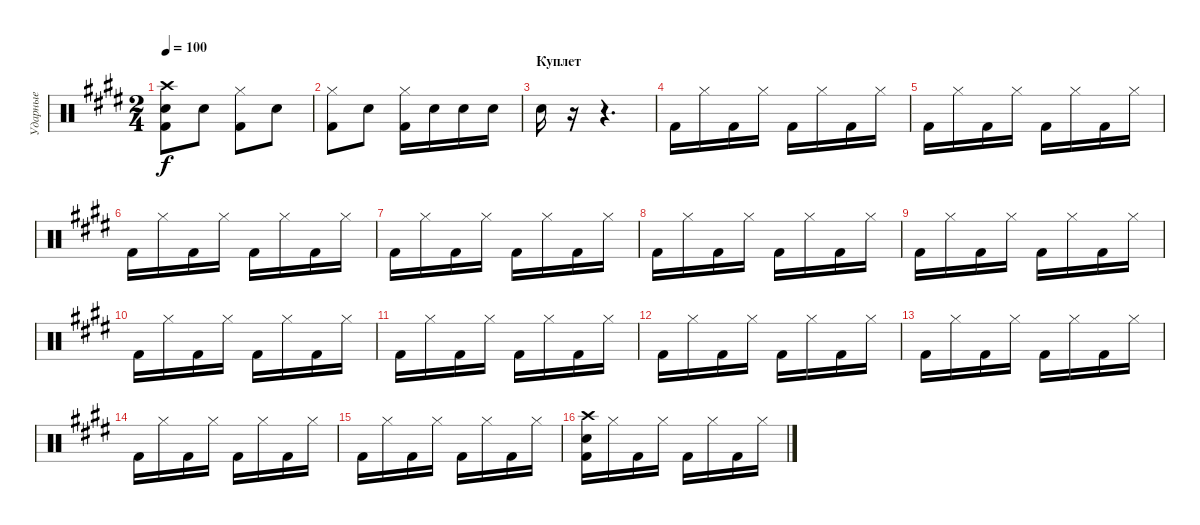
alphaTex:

\track ("Ударные" "Ударные") {instrument percussion}
\staff {score}
\articulation defaults
\ts (2 4)
\tempo 100
\clef neutral
\ks c#minor
("Crash high (hit)" "Snare (hit) 2" "Kick (hit) 2").8{dy f} "Snare (hit) 2".8 ("Kick (hit) 2" "Hi-Hat (closed)").8 "Snare (hit) 2".8 |
("Kick (hit) 2" "Hi-Hat (closed)").8 "Snare (hit) 2".8 ("Hi-Hat (closed)" "Kick (hit) 2").16 "Snare (hit) 2".16 "Snare (hit) 2".16 "Snare (hit) 2".16 |
\section ("" "Куплет")
"Snare (hit) 2".16 r.16 r.4{d} |
"Kick (hit) 2".16 "Hi-Hat (closed)".16 "Kick (hit) 2".16 "Hi-Hat (closed)".16 "Kick (hit) 2".16 "Hi-Hat (closed)".16 "Kick (hit) 2".16 "Hi-Hat (closed)".16 |
"Kick (hit) 2".16 "Hi-Hat (closed)".16 "Kick (hit) 2".16 "Hi-Hat (closed)".16 "Kick (hit) 2".16 "Hi-Hat (closed)".16 "Kick (hit) 2".16 "Hi-Hat (closed)".16 |
"Kick (hit) 2".16 "Hi-Hat (closed)".16 "Kick (hit) 2".16 "Hi-Hat (closed)".16 "Kick (hit) 2".16 "Hi-Hat (closed)".16 "Kick (hit) 2".16 "Hi-Hat (closed)".16 |
"Kick (hit) 2".16 "Hi-Hat (closed)".16 "Kick (hit) 2".16 "Hi-Hat (closed)".16 "Kick (hit) 2".16 "Hi-Hat (closed)".16 "Kick (hit) 2".16 "Hi-Hat (closed)".16 |
"Kick (hit) 2".16 "Hi-Hat (closed)".16 "Kick (hit) 2".16 "Hi-Hat (closed)".16 "Kick (hit) 2".16 "Hi-Hat (closed)".16 "Kick (hit) 2".16 "Hi-Hat (closed)".16 |
"Kick (hit) 2".16 "Hi-Hat (closed)".16 "Kick (hit) 2".16 "Hi-Hat (closed)".16 "Kick (hit) 2".16 "Hi-Hat (closed)".16 "Kick (hit) 2".16 "Hi-Hat (closed)".16 |
"Kick (hit) 2".16 "Hi-Hat (closed)".16 "Kick (hit) 2".16 "Hi-Hat (closed)".16 "Kick (hit) 2".16 "Hi-Hat (closed)".16 "Kick (hit) 2".16 "Hi-Hat (closed)".16 |
"Kick (hit) 2".16 "Hi-Hat (closed)".16 "Kick (hit) 2".16 "Hi-Hat (closed)".16 "Kick (hit) 2".16 "Hi-Hat (closed)".16 "Kick (hit) 2".16 "Hi-Hat (closed)".16 |
"Kick (hit) 2".16 "Hi-Hat (closed)".16 "Kick (hit) 2".16 "Hi-Hat (closed)".16 "Kick (hit) 2".16 "Hi-Hat (closed)".16 "Kick (hit) 2".16 "Hi-Hat (closed)".16 |
"Kick (hit) 2".16 "Hi-Hat (closed)".16 "Kick (hit) 2".16 "Hi-Hat (closed)".16 "Kick (hit) 2".16 "Hi-Hat (closed)".16 "Kick (hit) 2".16 "Hi-Hat (closed)".16 |
"Kick (hit) 2".16 "Hi-Hat (closed)".16 "Kick (hit) 2".16 "Hi-Hat (closed)".16 "Kick (hit) 2".16 "Hi-Hat (closed)".16 "Kick (hit) 2".16 "Hi-Hat (closed)".16 |
"Kick (hit) 2".16 "Hi-Hat (closed)".16 "Kick (hit) 2".16 "Hi-Hat (closed)".16 "Kick (hit) 2".16 "Hi-Hat (closed)".16 "Kick (hit) 2".16 "Hi-Hat (closed)".16 |
("Crash high (hit)" "Snare (hit) 2" "Kick (hit) 2").16 "Hi-Hat (closed)".16 "Kick (hit) 2".16 "Hi-Hat (closed)".16 "Kick (hit) 2".16 "Hi-Hat (closed)".16 "Kick (hit) 2".16 "Hi-Hat (closed)".16
